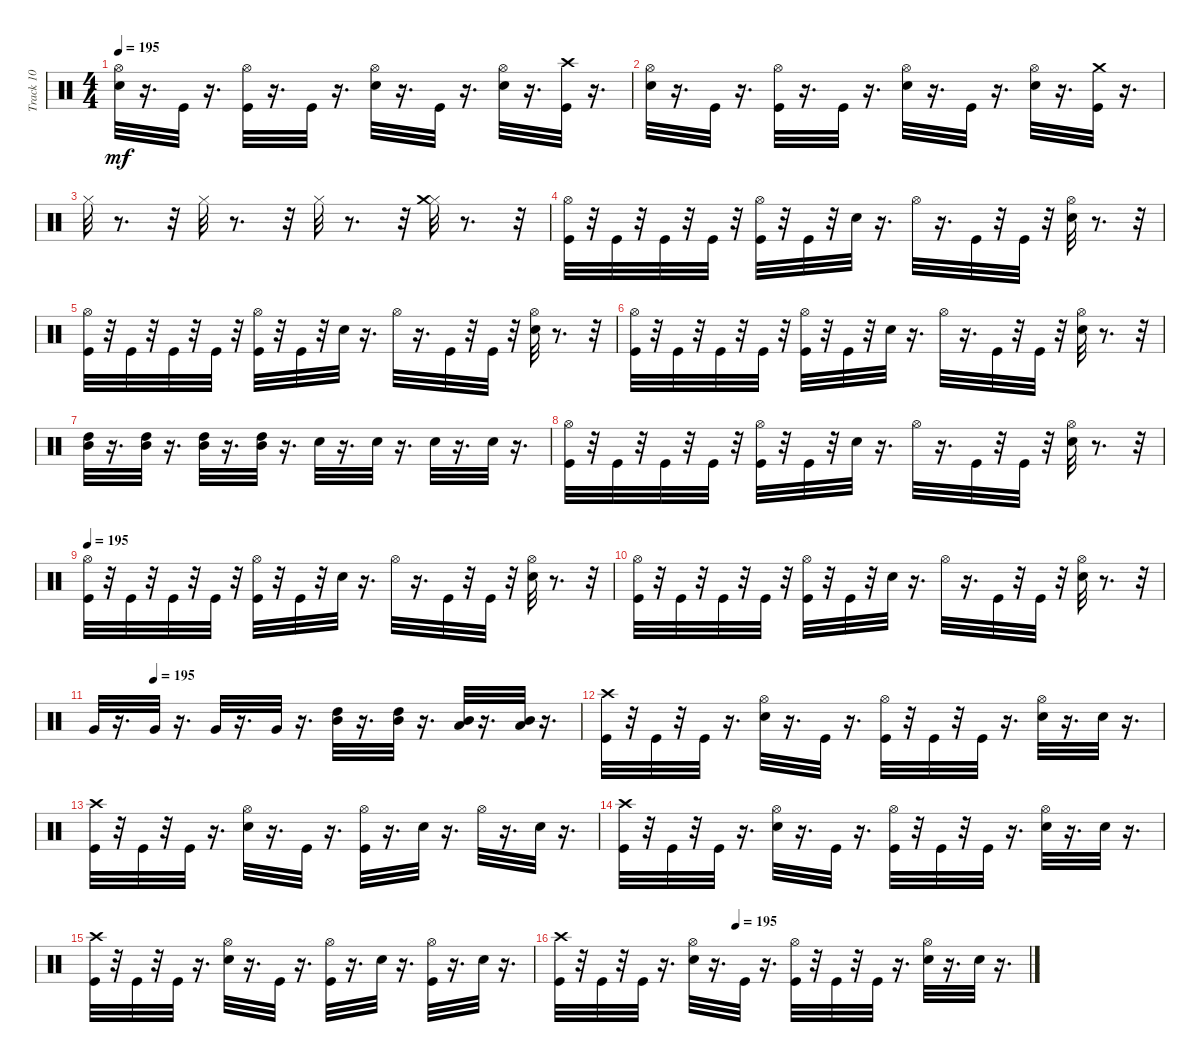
\track ("Track 10" "Track 10") {instrument percussion}
\staff {score}
\articulation defaults
\ts (4 4)
\tempo 195
\clef neutral
\ks c
("Hi-Hat (open)" "Electric Snare (hit)").32{dy mf} r.16{d} "Kick (hit)".32 r.16{d} ("Hi-Hat (open)" "Kick (hit)").32 r.16{d} "Kick (hit)".32 r.16{d} ("Hi-Hat (open)" "Electric Snare (hit)").32 r.16{d} "Kick (hit)".32 r.16{d} ("Electric Snare (hit)" "Hi-Hat (open)").32 r.16{d} ("Crash high (hit)" "Kick (hit)").32 r.16{d} |
("Electric Snare (hit)" "Hi-Hat (open)").32 r.16{d} "Kick (hit)".32 r.16{d} ("Kick (hit)" "Hi-Hat (open)").32 r.16{d} "Kick (hit)".32 r.16{d} ("Electric Snare (hit)" "Hi-Hat (open)").32 r.16{d} "Kick (hit)".32 r.16{d} ("Electric Snare (hit)" "Hi-Hat (open)").32 r.16{d} ("Kick (hit)" "Crash medium (hit)").32 r.16{d} |
"Hi-Hat (closed)".32 r.8{d} r.32 "Hi-Hat (closed)".32 r.8{d} r.32 "Hi-Hat (closed)".32 r.8{d} r.32 ("Hi-Hat (closed)" "Crash medium (hit)").32 r.8{d} r.32 |
("Kick (hit)" "Hi-Hat (open)").32 r.32 "Kick (hit)".32 r.32 "Kick (hit)".32 r.32 "Kick (hit)".32 r.32 ("Kick (hit)" "Hi-Hat (open)").32 r.32 "Kick (hit)".32 r.32 "Electric Snare (hit)".32 r.16{d} "Hi-Hat (open)".32 r.16{d} "Kick (hit)".32 r.32 "Kick (hit)".32 r.32 ("Hi-Hat (open)" "Electric Snare (hit)").32 r.8{d} r.32 |
("Kick (hit)" "Hi-Hat (open)").32 r.32 "Kick (hit)".32 r.32 "Kick (hit)".32 r.32 "Kick (hit)".32 r.32 ("Kick (hit)" "Hi-Hat (open)").32 r.32 "Kick (hit)".32 r.32 "Electric Snare (hit)".32 r.16{d} "Hi-Hat (open)".32 r.16{d} "Kick (hit)".32 r.32 "Kick (hit)".32 r.32 ("Electric Snare (hit)" "Hi-Hat (open)").32 r.8{d} r.32 |
("Kick (hit)" "Hi-Hat (open)").32 r.32 "Kick (hit)".32 r.32 "Kick (hit)".32 r.32 "Kick (hit)".32 r.32 ("Kick (hit)" "Hi-Hat (open)").32 r.32 "Kick (hit)".32 r.32 "Electric Snare (hit)".32 r.16{d} "Hi-Hat (open)".32 r.16{d} "Kick (hit)".32 r.32 "Kick (hit)".32 r.32 ("Electric Snare (hit)" "Hi-Hat (open)").32 r.8{d} r.32 |
("Mid Tom (hit)" "High Tom (hit)").32 r.16{d} ("Mid Tom (hit)" "High Tom (hit)").32 r.16{d} ("High Tom (hit)" "Mid Tom (hit)").32 r.16{d} ("High Tom (hit)" "Mid Tom (hit)").32 r.16{d} "Electric Snare (hit)".32 r.16{d} "Electric Snare (hit)".32 r.16{d} "Electric Snare (hit)".32 r.16{d} "Electric Snare (hit)".32 r.16{d} |
("Kick (hit)" "Hi-Hat (open)").32 r.32 "Kick (hit)".32 r.32 "Kick (hit)".32 r.32 "Kick (hit)".32 r.32 ("Kick (hit)" "Hi-Hat (open)").32 r.32 "Kick (hit)".32 r.32 "Electric Snare (hit)".32 r.16{d} "Hi-Hat (open)".32 r.16{d} "Kick (hit)".32 r.32 "Kick (hit)".32 r.32 ("Hi-Hat (open)" "Electric Snare (hit)").32 r.8{d} r.32 |
\tempo 195
("Kick (hit)" "Hi-Hat (open)").32 r.32 "Kick (hit)".32 r.32 "Kick (hit)".32 r.32 "Kick (hit)".32 r.32 ("Kick (hit)" "Hi-Hat (open)").32 r.32 "Kick (hit)".32 r.32 "Electric Snare (hit)".32 r.16{d} "Hi-Hat (open)".32 r.16{d} "Kick (hit)".32 r.32 "Kick (hit)".32 r.32 ("Electric Snare (hit)" "Hi-Hat (open)").32 r.8{d} r.32 |
("Kick (hit)" "Hi-Hat (open)").32 r.32 "Kick (hit)".32 r.32 "Kick (hit)".32 r.32 "Kick (hit)".32 r.32 ("Kick (hit)" "Hi-Hat (open)").32 r.32 "Kick (hit)".32 r.32 "Electric Snare (hit)".32 r.16{d} "Hi-Hat (open)".32 r.16{d} "Kick (hit)".32 r.32 "Kick (hit)".32 r.32 ("Electric Snare (hit)" "Hi-Hat (open)").32 r.8{d} r.32 |
\tempo (195 0.125)
"Very Low Tom (hit)".32 r.16{d} "Very Low Tom (hit)".32 r.16{d} "Very Low Tom (hit)".32 r.16{d} "Very Low Tom (hit)".32 r.16{d} ("Mid Tom (hit)" "High Tom (hit)").32 r.16{d} ("Mid Tom (hit)" "High Tom (hit)").32 r.16{d} ("Low Tom (hit)" "Mid Tom (hit)").32 r.16{d} ("Low Tom (hit)" "Mid Tom (hit)").32 r.16{d} |
("Kick (hit)" "Crash high (hit)").32 r.32 "Kick (hit)".32 r.32 "Kick (hit)".32 r.16{d} ("Hi-Hat (open)" "Electric Snare (hit)").32 r.16{d} "Kick (hit)".32 r.16{d} ("Kick (hit)" "Hi-Hat (open)").32 r.32 "Kick (hit)".32 r.32 "Kick (hit)".32 r.16{d} ("Hi-Hat (open)" "Electric Snare (hit)").32 r.16{d} "Electric Snare (hit)".32 r.16{d} |
("Crash high (hit)" "Kick (hit)").32 r.32 "Kick (hit)".32 r.32 "Kick (hit)".32 r.16{d} ("Electric Snare (hit)" "Hi-Hat (open)").32 r.16{d} "Kick (hit)".32 r.16{d} ("Kick (hit)" "Hi-Hat (open)").32 r.16{d} "Electric Snare (hit)".32 r.16{d} "Hi-Hat (open)".32 r.16{d} "Electric Snare (hit)".32 r.16{d} |
("Crash high (hit)" "Kick (hit)").32 r.32 "Kick (hit)".32 r.32 "Kick (hit)".32 r.16{d} ("Electric Snare (hit)" "Hi-Hat (open)").32 r.16{d} "Kick (hit)".32 r.16{d} ("Kick (hit)" "Hi-Hat (open)").32 r.32 "Kick (hit)".32 r.32 "Kick (hit)".32 r.16{d} ("Electric Snare (hit)" "Hi-Hat (open)").32 r.16{d} "Electric Snare (hit)".32 r.16{d} |
("Crash high (hit)" "Kick (hit)").32 r.32 "Kick (hit)".32 r.32 "Kick (hit)".32 r.16{d} ("Electric Snare (hit)" "Hi-Hat (open)").32 r.16{d} "Kick (hit)".32 r.16{d} ("Kick (hit)" "Hi-Hat (open)").32 r.16{d} "Electric Snare (hit)".32 r.16{d} ("Kick (hit)" "Hi-Hat (open)").32 r.16{d} "Electric Snare (hit)".32 r.16{d} |
\tempo (195 0.375)
("Crash high (hit)" "Kick (hit)").32 r.32 "Kick (hit)".32 r.32 "Kick (hit)".32 r.16{d} ("Electric Snare (hit)" "Hi-Hat (open)").32 r.16{d} "Kick (hit)".32 r.16{d} ("Kick (hit)" "Hi-Hat (open)").32 r.32 "Kick (hit)".32 r.32 "Kick (hit)".32 r.16{d} ("Electric Snare (hit)" "Hi-Hat (open)").32 r.16{d} "Electric Snare (hit)".32 r.16{d}
